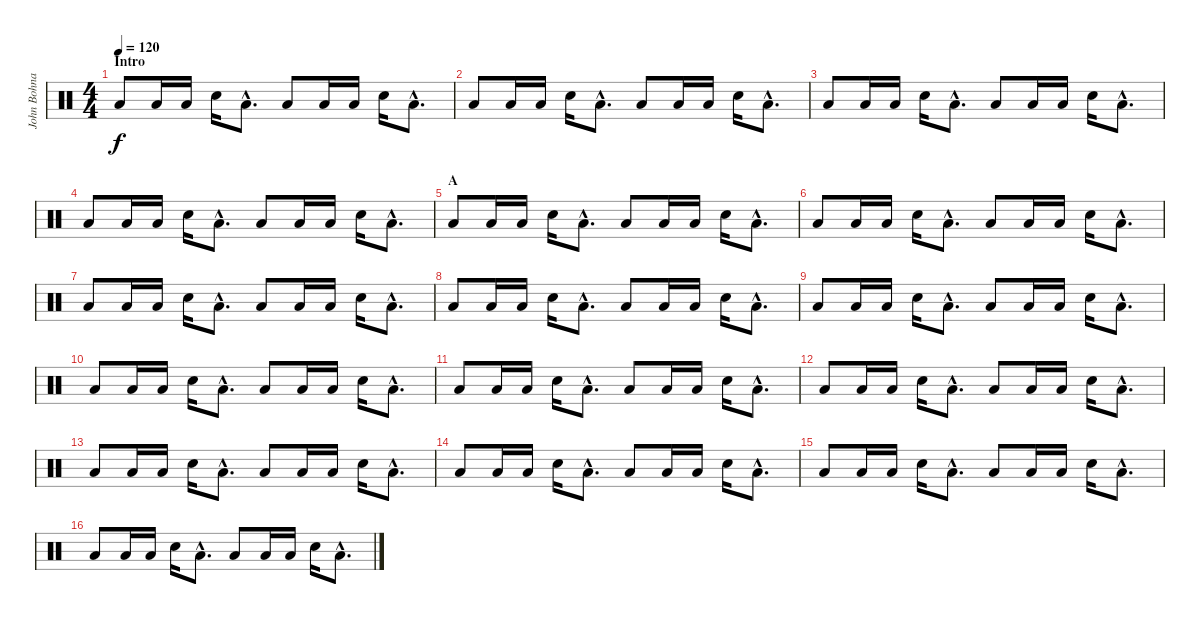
\track ("John Bohnam - Drums" "John Bohna") {instrument percussion}
\staff {score}
\articulation defaults
\ts (4 4)
\section ("" "Intro")
\tempo 120
\clef neutral
\ks c "Low Floor Tom (hit)".8{dy f} "Low Floor Tom (hit)".16 "Low Floor Tom (hit)".16 "Electric Snare (hit)".16 "Low Floor Tom (hit)"{hac}.8{d} "Low Floor Tom (hit)".8 "Low Floor Tom (hit)".16 "Low Floor Tom (hit)".16 "Electric Snare (hit)".16 "Low Floor Tom (hit)"{hac}.8{d}
|
"Low Floor Tom (hit)".8 "Low Floor Tom (hit)".16 "Low Floor Tom (hit)".16 "Electric Snare (hit)".16 "Low Floor Tom (hit)"{hac}.8{d} "Low Floor Tom (hit)".8 "Low Floor Tom (hit)".16 "Low Floor Tom (hit)".16 "Electric Snare (hit)".16 "Low Floor Tom (hit)"{hac}.8{d} |
"Low Floor Tom (hit)".8 "Low Floor Tom (hit)".16 "Low Floor Tom (hit)".16 "Electric Snare (hit)".16 "Low Floor Tom (hit)"{hac}.8{d} "Low Floor Tom (hit)".8 "Low Floor Tom (hit)".16 "Low Floor Tom (hit)".16 "Electric Snare (hit)".16 "Low Floor Tom (hit)"{hac}.8{d} |
"Low Floor Tom (hit)".8 "Low Floor Tom (hit)".16 "Low Floor Tom (hit)".16 "Electric Snare (hit)".16 "Low Floor Tom (hit)"{hac}.8{d} "Low Floor Tom (hit)".8 "Low Floor Tom (hit)".16 "Low Floor Tom (hit)".16 "Electric Snare (hit)".16 "Low Floor Tom (hit)"{hac}.8{d} |
\section ("" "A")
"Low Floor Tom (hit)".8 "Low Floor Tom (hit)".16 "Low Floor Tom (hit)".16 "Electric Snare (hit)".16 "Low Floor Tom (hit)"{hac}.8{d} "Low Floor Tom (hit)".8 "Low Floor Tom (hit)".16 "Low Floor Tom (hit)".16 "Electric Snare (hit)".16 "Low Floor Tom (hit)"{hac}.8{d} |
"Low Floor Tom (hit)".8 "Low Floor Tom (hit)".16 "Low Floor Tom (hit)".16 "Electric Snare (hit)".16 "Low Floor Tom (hit)"{hac}.8{d} "Low Floor Tom (hit)".8 "Low Floor Tom (hit)".16 "Low Floor Tom (hit)".16 "Electric Snare (hit)".16 "Low Floor Tom (hit)"{hac}.8{d} |
"Low Floor Tom (hit)".8 "Low Floor Tom (hit)".16 "Low Floor Tom (hit)".16 "Electric Snare (hit)".16 "Low Floor Tom (hit)"{hac}.8{d} "Low Floor Tom (hit)".8 "Low Floor Tom (hit)".16 "Low Floor Tom (hit)".16 "Electric Snare (hit)".16 "Low Floor Tom (hit)"{hac}.8{d} |
"Low Floor Tom (hit)".8 "Low Floor Tom (hit)".16 "Low Floor Tom (hit)".16 "Electric Snare (hit)".16 "Low Floor Tom (hit)"{hac}.8{d} "Low Floor Tom (hit)".8 "Low Floor Tom (hit)".16 "Low Floor Tom (hit)".16 "Electric Snare (hit)".16 "Low Floor Tom (hit)"{hac}.8{d} |
"Low Floor Tom (hit)".8 "Low Floor Tom (hit)".16 "Low Floor Tom (hit)".16 "Electric Snare (hit)".16 "Low Floor Tom (hit)"{hac}.8{d} "Low Floor Tom (hit)".8 "Low Floor Tom (hit)".16 "Low Floor Tom (hit)".16 "Electric Snare (hit)".16 "Low Floor Tom (hit)"{hac}.8{d} |
"Low Floor Tom (hit)".8 "Low Floor Tom (hit)".16 "Low Floor Tom (hit)".16 "Electric Snare (hit)".16 "Low Floor Tom (hit)"{hac}.8{d} "Low Floor Tom (hit)".8 "Low Floor Tom (hit)".16 "Low Floor Tom (hit)".16 "Electric Snare (hit)".16 "Low Floor Tom (hit)"{hac}.8{d} |
"Low Floor Tom (hit)".8 "Low Floor Tom (hit)".16 "Low Floor Tom (hit)".16 "Electric Snare (hit)".16 "Low Floor Tom (hit)"{hac}.8{d} "Low Floor Tom (hit)".8 "Low Floor Tom (hit)".16 "Low Floor Tom (hit)".16 "Electric Snare (hit)".16 "Low Floor Tom (hit)"{hac}.8{d} |
"Low Floor Tom (hit)".8 "Low Floor Tom (hit)".16 "Low Floor Tom (hit)".16 "Electric Snare (hit)".16 "Low Floor Tom (hit)"{hac}.8{d} "Low Floor Tom (hit)".8 "Low Floor Tom (hit)".16 "Low Floor Tom (hit)".16 "Electric Snare (hit)".16 "Low Floor Tom (hit)"{hac}.8{d} |
"Low Floor Tom (hit)".8 "Low Floor Tom (hit)".16 "Low Floor Tom (hit)".16 "Electric Snare (hit)".16 "Low Floor Tom (hit)"{hac}.8{d} "Low Floor Tom (hit)".8 "Low Floor Tom (hit)".16 "Low Floor Tom (hit)".16 "Electric Snare (hit)".16 "Low Floor Tom (hit)"{hac}.8{d} |
"Low Floor Tom (hit)".8 "Low Floor Tom (hit)".16 "Low Floor Tom (hit)".16 "Electric Snare (hit)".16 "Low Floor Tom (hit)"{hac}.8{d} "Low Floor Tom (hit)".8 "Low Floor Tom (hit)".16 "Low Floor Tom (hit)".16 "Electric Snare (hit)".16 "Low Floor Tom (hit)"{hac}.8{d} |
"Low Floor Tom (hit)".8 "Low Floor Tom (hit)".16 "Low Floor Tom (hit)".16 "Electric Snare (hit)".16 "Low Floor Tom (hit)"{hac}.8{d} "Low Floor Tom (hit)".8 "Low Floor Tom (hit)".16 "Low Floor Tom (hit)".16 "Electric Snare (hit)".16 "Low Floor Tom (hit)"{hac}.8{d} |
"Low Floor Tom (hit)".8 "Low Floor Tom (hit)".16 "Low Floor Tom (hit)".16 "Electric Snare (hit)".16 "Low Floor Tom (hit)"{hac}.8{d} "Low Floor Tom (hit)".8 "Low Floor Tom (hit)".16 "Low Floor Tom (hit)".16 "Electric Snare (hit)".16 "Low Floor Tom (hit)"{hac}.8{d}
